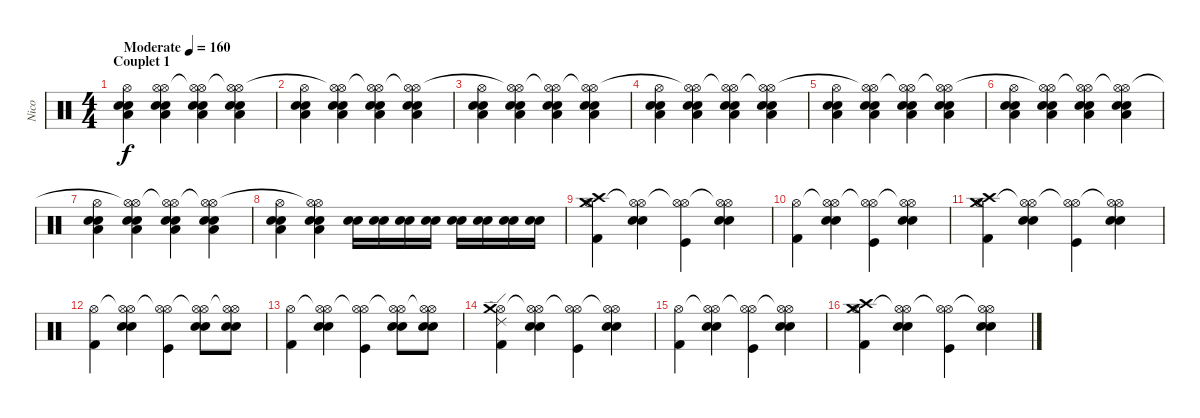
\track ("Nico" "Nico") {instrument percussion}
\staff {score}
\articulation defaults
\ts (4 4)
\section ("" "Couplet 1")
\tempo (160 "Moderate")
\clef neutral
\ks c
("Electric Snare (hit)" "Low Floor Tom (hit)" "Snare (hit) 2" "Hi-Hat (open)").4{dy f} ("Electric Snare (hit)" "Low Floor Tom (hit)" "Snare (hit) 2" "Hi-Hat (open)" "Hi-Hat (open)").4 ("Electric Snare (hit)" "Low Floor Tom (hit)" "Snare (hit) 2" "Hi-Hat (open)"{t} "Hi-Hat (open)").4 ("Electric Snare (hit)" "Low Floor Tom (hit)" "Snare (hit) 2" "Hi-Hat (open)" "Hi-Hat (open)"{t}).4 |
("Electric Snare (hit)" "Low Floor Tom (hit)" "Snare (hit) 2" "Hi-Hat (open)").4 ("Electric Snare (hit)" "Low Floor Tom (hit)" "Snare (hit) 2" "Hi-Hat (open)" "Hi-Hat (open)"{t}).4 ("Electric Snare (hit)" "Low Floor Tom (hit)" "Snare (hit) 2" "Hi-Hat (open)"{t} "Hi-Hat (open)").4 ("Electric Snare (hit)" "Low Floor Tom (hit)" "Snare (hit) 2" "Hi-Hat (open)" "Hi-Hat (open)"{t}).4 |
("Electric Snare (hit)" "Low Floor Tom (hit)" "Snare (hit) 2" "Hi-Hat (open)").4 ("Electric Snare (hit)" "Low Floor Tom (hit)" "Snare (hit) 2" "Hi-Hat (open)" "Hi-Hat (open)"{t}).4 ("Electric Snare (hit)" "Low Floor Tom (hit)" "Snare (hit) 2" "Hi-Hat (open)"{t} "Hi-Hat (open)").4 ("Electric Snare (hit)" "Low Floor Tom (hit)" "Snare (hit) 2" "Hi-Hat (open)" "Hi-Hat (open)"{t}).4 |
("Electric Snare (hit)" "Low Floor Tom (hit)" "Snare (hit) 2" "Hi-Hat (open)").4 ("Electric Snare (hit)" "Low Floor Tom (hit)" "Snare (hit) 2" "Hi-Hat (open)" "Hi-Hat (open)"{t}).4 ("Electric Snare (hit)" "Low Floor Tom (hit)" "Snare (hit) 2" "Hi-Hat (open)"{t} "Hi-Hat (open)").4 ("Electric Snare (hit)" "Low Floor Tom (hit)" "Snare (hit) 2" "Hi-Hat (open)" "Hi-Hat (open)"{t}).4 |
("Electric Snare (hit)" "Low Floor Tom (hit)" "Snare (hit) 2" "Hi-Hat (open)").4 ("Electric Snare (hit)" "Low Floor Tom (hit)" "Snare (hit) 2" "Hi-Hat (open)" "Hi-Hat (open)"{t}).4 ("Electric Snare (hit)" "Low Floor Tom (hit)" "Snare (hit) 2" "Hi-Hat (open)"{t} "Hi-Hat (open)").4 ("Electric Snare (hit)" "Low Floor Tom (hit)" "Snare (hit) 2" "Hi-Hat (open)" "Hi-Hat (open)"{t}).4 |
("Electric Snare (hit)" "Low Floor Tom (hit)" "Snare (hit) 2" "Hi-Hat (open)").4 ("Electric Snare (hit)" "Low Floor Tom (hit)" "Snare (hit) 2" "Hi-Hat (open)" "Hi-Hat (open)"{t}).4 ("Electric Snare (hit)" "Low Floor Tom (hit)" "Snare (hit) 2" "Hi-Hat (open)"{t} "Hi-Hat (open)").4 ("Electric Snare (hit)" "Low Floor Tom (hit)" "Snare (hit) 2" "Hi-Hat (open)" "Hi-Hat (open)"{t}).4 |
("Electric Snare (hit)" "Low Floor Tom (hit)" "Snare (hit) 2" "Hi-Hat (open)").4 ("Electric Snare (hit)" "Low Floor Tom (hit)" "Snare (hit) 2" "Hi-Hat (open)" "Hi-Hat (open)"{t}).4 ("Electric Snare (hit)" "Low Floor Tom (hit)" "Snare (hit) 2" "Hi-Hat (open)"{t} "Hi-Hat (open)").4 ("Electric Snare (hit)" "Low Floor Tom (hit)" "Snare (hit) 2" "Hi-Hat (open)" "Hi-Hat (open)"{t}).4 |
("Electric Snare (hit)" "Low Floor Tom (hit)" "Snare (hit) 2" "Hi-Hat (open)").4 ("Electric Snare (hit)" "Low Floor Tom (hit)" "Snare (hit) 2" "Hi-Hat (open)" "Hi-Hat (open)"{t}).4 ("Snare (hit) 2" "Electric Snare (hit)").16 ("Snare (hit) 2" "Electric Snare (hit)").16 ("Snare (hit) 2" "Electric Snare (hit)").16 ("Snare (hit) 2" "Electric Snare (hit)").16 ("Snare (hit) 2" "Electric Snare (hit)").16 ("Snare (hit) 2" "Electric Snare (hit)").16 ("Snare (hit) 2" "Electric Snare (hit)").16 ("Snare (hit) 2" "Electric Snare (hit)").16 |
("Hi-Hat (open)" "Crash medium (hit)" "Crash high (hit)" "Kick (hit) 2").4 ("Hi-Hat (open)"{t} "Hi-Hat (open)" "Electric Snare (hit)" "Snare (hit) 2").4 ("Hi-Hat (open)" "Hi-Hat (open)"{t} "Kick (hit)").4 ("Hi-Hat (open)"{t} "Hi-Hat (open)" "Electric Snare (hit)" "Snare (hit) 2").4 |
("Hi-Hat (open)" "Kick (hit) 2").4 ("Hi-Hat (open)"{t} "Hi-Hat (open)" "Electric Snare (hit)" "Snare (hit) 2").4 ("Hi-Hat (open)" "Hi-Hat (open)"{t} "Kick (hit)").4 ("Hi-Hat (open)"{t} "Hi-Hat (open)" "Electric Snare (hit)" "Snare (hit) 2").4 |
("Hi-Hat (open)" "Crash high (hit)" "Crash medium (hit)" "Kick (hit) 2").4 ("Hi-Hat (open)"{t} "Hi-Hat (open)" "Electric Snare (hit)" "Snare (hit) 2").4 ("Hi-Hat (open)" "Hi-Hat (open)"{t} "Kick (hit)").4 ("Hi-Hat (open)"{t} "Hi-Hat (open)" "Electric Snare (hit)" "Snare (hit) 2").4 |
("Hi-Hat (open)" "Kick (hit) 2").4 ("Hi-Hat (open)"{t} "Hi-Hat (open)" "Electric Snare (hit)" "Snare (hit) 2").4 ("Hi-Hat (open)" "Hi-Hat (open)"{t} "Kick (hit)").4 ("Hi-Hat (open)"{t} "Hi-Hat (open)" "Electric Snare (hit)" "Snare (hit) 2").8 ("Hi-Hat (open)"{t} "Hi-Hat (open)" "Electric Snare (hit)" "Snare (hit) 2").8 |
("Hi-Hat (open)" "Kick (hit) 2").4 ("Hi-Hat (open)"{t} "Hi-Hat (open)" "Electric Snare (hit)" "Snare (hit) 2").4 ("Hi-Hat (open)" "Hi-Hat (open)"{t} "Kick (hit)").4 ("Hi-Hat (open)"{t} "Hi-Hat (open)" "Electric Snare (hit)" "Snare (hit) 2").8 ("Hi-Hat (open)"{t} "Hi-Hat (open)" "Electric Snare (hit)" "Snare (hit) 2").8 |
("Hi-Hat (open)" "Crash medium (hit)" "Ride (edge) 2" "Kick (hit) 2").4 ("Hi-Hat (open)"{t} "Hi-Hat (open)" "Electric Snare (hit)" "Snare (hit) 2").4 ("Hi-Hat (open)" "Hi-Hat (open)"{t} "Kick (hit)").4 ("Hi-Hat (open)"{t} "Hi-Hat (open)" "Electric Snare (hit)" "Snare (hit) 2").4 |
("Hi-Hat (open)" "Kick (hit) 2").4 ("Hi-Hat (open)"{t} "Hi-Hat (open)" "Electric Snare (hit)" "Snare (hit) 2").4 ("Hi-Hat (open)" "Hi-Hat (open)"{t} "Kick (hit)").4 ("Hi-Hat (open)"{t} "Hi-Hat (open)" "Electric Snare (hit)" "Snare (hit) 2").4 |
("Hi-Hat (open)" "Crash high (hit)" "Crash medium (hit)" "Kick (hit) 2").4 ("Hi-Hat (open)"{t} "Hi-Hat (open)" "Electric Snare (hit)" "Snare (hit) 2").4 ("Hi-Hat (open)" "Hi-Hat (open)"{t} "Kick (hit)").4 ("Hi-Hat (open)"{t} "Hi-Hat (open)" "Electric Snare (hit)" "Snare (hit) 2").4
